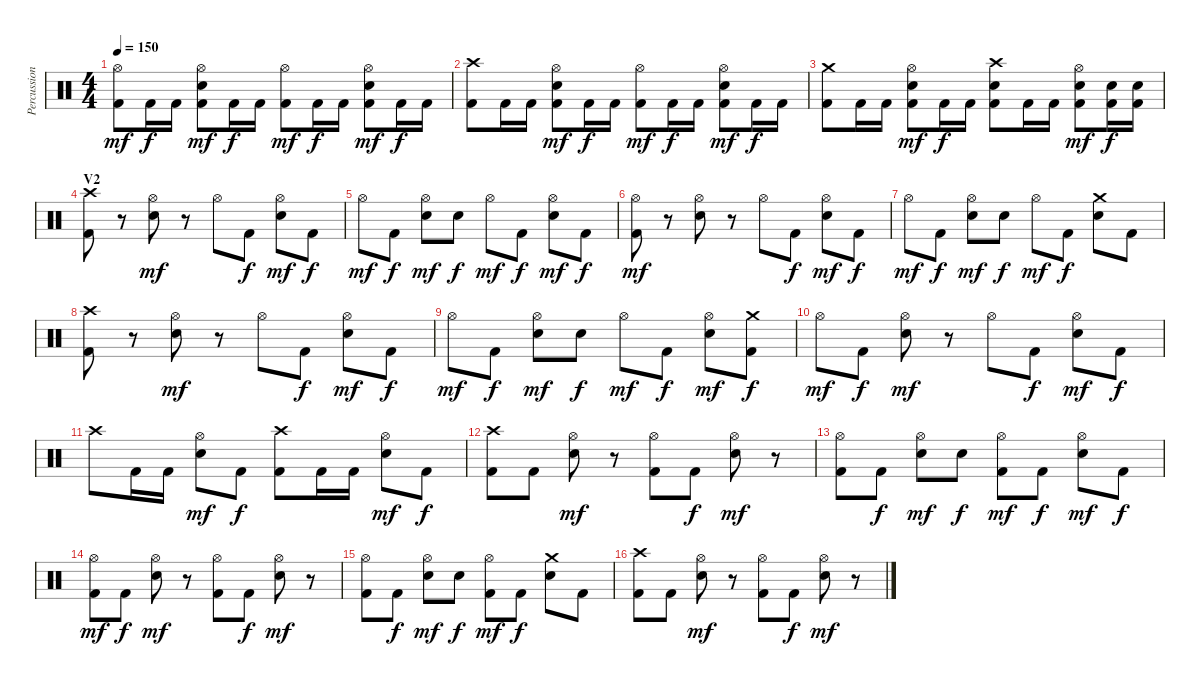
\track ("Percussion" "Percussion") {instrument percussion}
\staff {score}
\articulation defaults
\ts (4 4)
\tempo 150
\clef neutral
\ks c
("Hi-Hat (open)" "Kick (hit) 2").8{dy mf} "Kick (hit) 2".16{dy f} "Kick (hit) 2".16 ("Hi-Hat (open)" "Electric Snare (hit)" "Kick (hit) 2").8{dy mf} "Kick (hit) 2".16{dy f} "Kick (hit) 2".16 ("Hi-Hat (open)" "Kick (hit) 2").8{dy mf} "Kick (hit) 2".16{dy f} "Kick (hit) 2".16 ("Hi-Hat (open)" "Electric Snare (hit)" "Kick (hit) 2").8{dy mf} "Kick (hit) 2".16{dy f} "Kick (hit) 2".16 |
("Crash high (hit)" "Kick (hit) 2").8 "Kick (hit) 2".16 "Kick (hit) 2".16 ("Hi-Hat (open)" "Electric Snare (hit)" "Kick (hit) 2").8{dy mf} "Kick (hit) 2".16{dy f} "Kick (hit) 2".16 ("Hi-Hat (open)" "Kick (hit) 2").8{dy mf} "Kick (hit) 2".16{dy f} "Kick (hit) 2".16 ("Hi-Hat (open)" "Electric Snare (hit)" "Kick (hit) 2").8{dy mf} "Kick (hit) 2".16{dy f} "Kick (hit) 2".16 |
("Crash medium (hit)" "Kick (hit) 2").8 "Kick (hit) 2".16 "Kick (hit) 2".16 ("Hi-Hat (open)" "Electric Snare (hit)" "Kick (hit) 2").8{dy mf} "Kick (hit) 2".16{dy f} "Kick (hit) 2".16 ("Crash high (hit)" "Electric Snare (hit)" "Kick (hit) 2").8 "Kick (hit) 2".16 "Kick (hit) 2".16 ("Hi-Hat (open)" "Electric Snare (hit)" "Kick (hit) 2").8{dy mf} ("Electric Snare (hit)" "Kick (hit) 2").16{dy f} ("Electric Snare (hit)" "Kick (hit) 2").16 |
\section ("" "V2")
("Crash high (hit)" "Kick (hit) 2").8 r.8 ("Hi-Hat (open)" "Electric Snare (hit)").8{dy mf} r.8 "Hi-Hat (open)".8 "Kick (hit) 2".8{dy f} ("Hi-Hat (open)" "Electric Snare (hit)").8{dy mf} "Kick (hit) 2".8{dy f} |
"Hi-Hat (open)".8{dy mf} "Kick (hit) 2".8{dy f} ("Hi-Hat (open)" "Electric Snare (hit)").8{dy mf} "Electric Snare (hit)".8{dy f} "Hi-Hat (open)".8{dy mf} "Kick (hit) 2".8{dy f} ("Hi-Hat (open)" "Electric Snare (hit)").8{dy mf} "Kick (hit) 2".8{dy f} |
("Hi-Hat (open)" "Kick (hit) 2").8{dy mf} r.8 ("Hi-Hat (open)" "Electric Snare (hit)").8 r.8 "Hi-Hat (open)".8 "Kick (hit) 2".8{dy f} ("Hi-Hat (open)" "Electric Snare (hit)").8{dy mf} "Kick (hit) 2".8{dy f} |
"Hi-Hat (open)".8{dy mf} "Kick (hit) 2".8{dy f} ("Hi-Hat (open)" "Electric Snare (hit)").8{dy mf} "Electric Snare (hit)".8{dy f} "Hi-Hat (open)".8{dy mf} "Kick (hit) 2".8{dy f} ("Crash medium (hit)" "Electric Snare (hit)").8 "Kick (hit) 2".8 |
("Crash high (hit)" "Kick (hit) 2").8 r.8 ("Hi-Hat (open)" "Electric Snare (hit)").8{dy mf} r.8 "Hi-Hat (open)".8 "Kick (hit) 2".8{dy f} ("Hi-Hat (open)" "Electric Snare (hit)").8{dy mf} "Kick (hit) 2".8{dy f} |
"Hi-Hat (open)".8{dy mf} "Kick (hit) 2".8{dy f} ("Hi-Hat (open)" "Electric Snare (hit)").8{dy mf} "Electric Snare (hit)".8{dy f} "Hi-Hat (open)".8{dy mf} "Kick (hit) 2".8{dy f} ("Hi-Hat (open)" "Electric Snare (hit)").8{dy mf} ("Crash medium (hit)" "Kick (hit) 2").8{dy f} |
"Hi-Hat (open)".8{dy mf} "Kick (hit) 2".8{dy f} ("Hi-Hat (open)" "Electric Snare (hit)").8{dy mf} r.8 "Hi-Hat (open)".8 "Kick (hit) 2".8{dy f} ("Hi-Hat (open)" "Electric Snare (hit)").8{dy mf} "Kick (hit) 2".8{dy f} |
"Crash high (hit)".8 "Kick (hit) 2".16 "Kick (hit) 2".16 ("Hi-Hat (open)" "Electric Snare (hit)").8{dy mf} "Kick (hit) 2".8{dy f} ("Crash high (hit)" "Kick (hit) 2").8 "Kick (hit) 2".16 "Kick (hit) 2".16 ("Hi-Hat (open)" "Electric Snare (hit)").8{dy mf} "Kick (hit) 2".8{dy f} |
\section ("" "")
("Crash high (hit)" "Kick (hit) 2").8 "Kick (hit) 2".8 ("Hi-Hat (open)" "Electric Snare (hit)").8{dy mf} r.8 ("Hi-Hat (open)" "Kick (hit) 2").8 "Kick (hit) 2".8{dy f} ("Hi-Hat (open)" "Electric Snare (hit)").8{dy mf} r.8 |
("Hi-Hat (open)" "Kick (hit) 2").8 "Kick (hit) 2".8{dy f} ("Hi-Hat (open)" "Electric Snare (hit)").8{dy mf} "Electric Snare (hit)".8{dy f} ("Hi-Hat (open)" "Kick (hit) 2").8{dy mf} "Kick (hit) 2".8{dy f} ("Hi-Hat (open)" "Electric Snare (hit)").8{dy mf} "Kick (hit) 2".8{dy f} |
("Hi-Hat (open)" "Kick (hit) 2").8{dy mf} "Kick (hit) 2".8{dy f} ("Hi-Hat (open)" "Electric Snare (hit)").8{dy mf} r.8 ("Hi-Hat (open)" "Kick (hit) 2").8 "Kick (hit) 2".8{dy f} ("Hi-Hat (open)" "Electric Snare (hit)").8{dy mf} r.8 |
("Hi-Hat (open)" "Kick (hit) 2").8 "Kick (hit) 2".8{dy f} ("Hi-Hat (open)" "Electric Snare (hit)").8{dy mf} "Electric Snare (hit)".8{dy f} ("Hi-Hat (open)" "Kick (hit) 2").8{dy mf} "Kick (hit) 2".8{dy f} ("Crash medium (hit)" "Electric Snare (hit)").8 "Kick (hit) 2".8 |
("Crash high (hit)" "Kick (hit) 2").8 "Kick (hit) 2".8 ("Hi-Hat (open)" "Electric Snare (hit)").8{dy mf} r.8 ("Hi-Hat (open)" "Kick (hit) 2").8 "Kick (hit) 2".8{dy f} ("Hi-Hat (open)" "Electric Snare (hit)").8{dy mf} r.8
